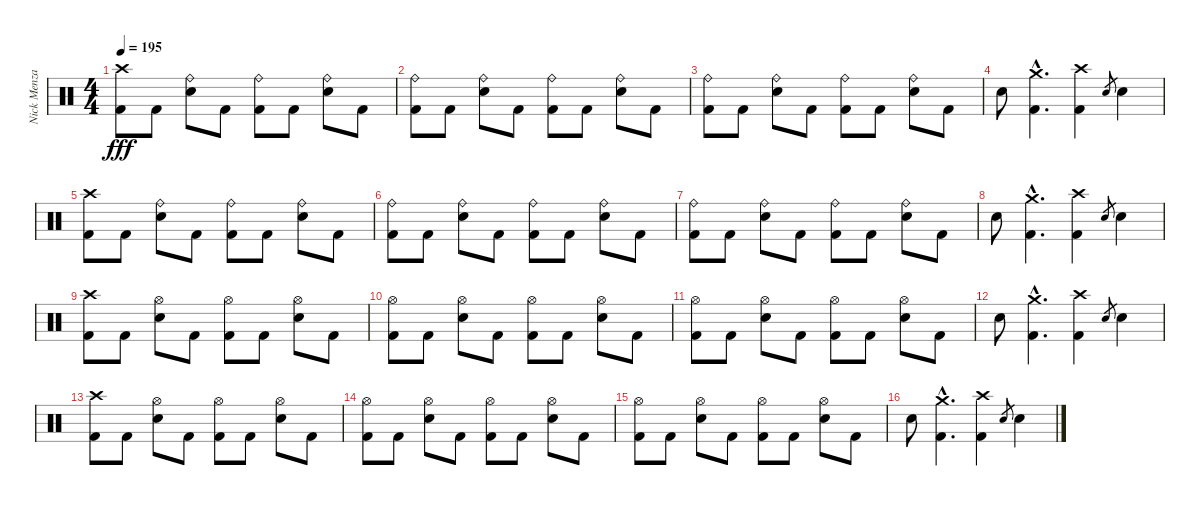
\track ("Nick Menza" "Nick Menza") {instrument percussion}
\staff {score}
\articulation defaults
\ts (4 4)
\tempo 195
\clef neutral
\ks c
("Kick (hit) 2" "Crash high (hit)").8{dy fff} "Kick (hit) 2".8 ("Electric Snare (hit)" "Ride (bell)").8 "Kick (hit) 2".8 ("Kick (hit) 2" "Ride (bell)").8 "Kick (hit) 2".8 ("Electric Snare (hit)" "Ride (bell)").8 "Kick (hit) 2".8 |
("Kick (hit) 2" "Ride (bell)").8 "Kick (hit) 2".8 ("Electric Snare (hit)" "Ride (bell)").8 "Kick (hit) 2".8 ("Kick (hit) 2" "Ride (bell)").8 "Kick (hit) 2".8 ("Electric Snare (hit)" "Ride (bell)").8 "Kick (hit) 2".8 |
("Kick (hit) 2" "Ride (bell)").8 "Kick (hit) 2".8 ("Electric Snare (hit)" "Ride (bell)").8 "Kick (hit) 2".8 ("Kick (hit) 2" "Ride (bell)").8 "Kick (hit) 2".8 ("Electric Snare (hit)" "Ride (bell)").8 "Kick (hit) 2".8 |
"Electric Snare (hit)".8 ("Kick (hit) 2"{hac} "Crash medium (hit)"{hac}).4{d} ("Kick (hit) 2" "Crash high (hit)").4 "Electric Snare (hit)".8{gr} "Electric Snare (hit)".4 |
("Kick (hit) 2" "Crash high (hit)").8 "Kick (hit) 2".8 ("Electric Snare (hit)" "Ride (bell)").8 "Kick (hit) 2".8 ("Kick (hit) 2" "Ride (bell)").8 "Kick (hit) 2".8 ("Electric Snare (hit)" "Ride (bell)").8 "Kick (hit) 2".8 |
("Kick (hit) 2" "Ride (bell)").8 "Kick (hit) 2".8 ("Electric Snare (hit)" "Ride (bell)").8 "Kick (hit) 2".8 ("Kick (hit) 2" "Ride (bell)").8 "Kick (hit) 2".8 ("Electric Snare (hit)" "Ride (bell)").8 "Kick (hit) 2".8 |
("Kick (hit) 2" "Ride (bell)").8 "Kick (hit) 2".8 ("Electric Snare (hit)" "Ride (bell)").8 "Kick (hit) 2".8 ("Kick (hit) 2" "Ride (bell)").8 "Kick (hit) 2".8 ("Electric Snare (hit)" "Ride (bell)").8 "Kick (hit) 2".8 |
"Electric Snare (hit)".8 ("Kick (hit) 2"{hac} "Crash medium (hit)"{hac}).4{d} ("Kick (hit) 2" "Crash high (hit)").4 "Electric Snare (hit)".8{gr} "Electric Snare (hit)".4 |
("Kick (hit) 2" "Crash high (hit)").8 "Kick (hit) 2".8 ("Electric Snare (hit)" "Hi-Hat (open)").8 "Kick (hit) 2".8 ("Kick (hit) 2" "Hi-Hat (open)").8 "Kick (hit) 2".8 ("Electric Snare (hit)" "Hi-Hat (open)").8 "Kick (hit) 2".8 |
("Kick (hit) 2" "Hi-Hat (open)").8 "Kick (hit) 2".8 ("Electric Snare (hit)" "Hi-Hat (open)").8 "Kick (hit) 2".8 ("Kick (hit) 2" "Hi-Hat (open)").8 "Kick (hit) 2".8 ("Electric Snare (hit)" "Hi-Hat (open)").8 "Kick (hit) 2".8 |
("Kick (hit) 2" "Hi-Hat (open)").8 "Kick (hit) 2".8 ("Electric Snare (hit)" "Hi-Hat (open)").8 "Kick (hit) 2".8 ("Kick (hit) 2" "Hi-Hat (open)").8 "Kick (hit) 2".8 ("Electric Snare (hit)" "Hi-Hat (open)").8 "Kick (hit) 2".8 |
"Electric Snare (hit)".8 ("Kick (hit) 2"{hac} "Crash medium (hit)"{hac}).4{d} ("Kick (hit) 2" "Crash high (hit)").4 "Electric Snare (hit)".8{gr} "Electric Snare (hit)".4 |
("Kick (hit) 2" "Crash high (hit)").8 "Kick (hit) 2".8 ("Electric Snare (hit)" "Hi-Hat (open)").8 "Kick (hit) 2".8 ("Kick (hit) 2" "Hi-Hat (open)").8 "Kick (hit) 2".8 ("Electric Snare (hit)" "Hi-Hat (open)").8 "Kick (hit) 2".8 |
("Kick (hit) 2" "Hi-Hat (open)").8 "Kick (hit) 2".8 ("Electric Snare (hit)" "Hi-Hat (open)").8 "Kick (hit) 2".8 ("Kick (hit) 2" "Hi-Hat (open)").8 "Kick (hit) 2".8 ("Electric Snare (hit)" "Hi-Hat (open)").8 "Kick (hit) 2".8 |
("Kick (hit) 2" "Hi-Hat (open)").8 "Kick (hit) 2".8 ("Electric Snare (hit)" "Hi-Hat (open)").8 "Kick (hit) 2".8 ("Kick (hit) 2" "Hi-Hat (open)").8 "Kick (hit) 2".8 ("Electric Snare (hit)" "Hi-Hat (open)").8 "Kick (hit) 2".8 |
"Electric Snare (hit)".8 ("Kick (hit) 2"{hac} "Crash medium (hit)"{hac}).4{d} ("Kick (hit) 2" "Crash high (hit)").4 "Electric Snare (hit)".8{gr} "Electric Snare (hit)".4
